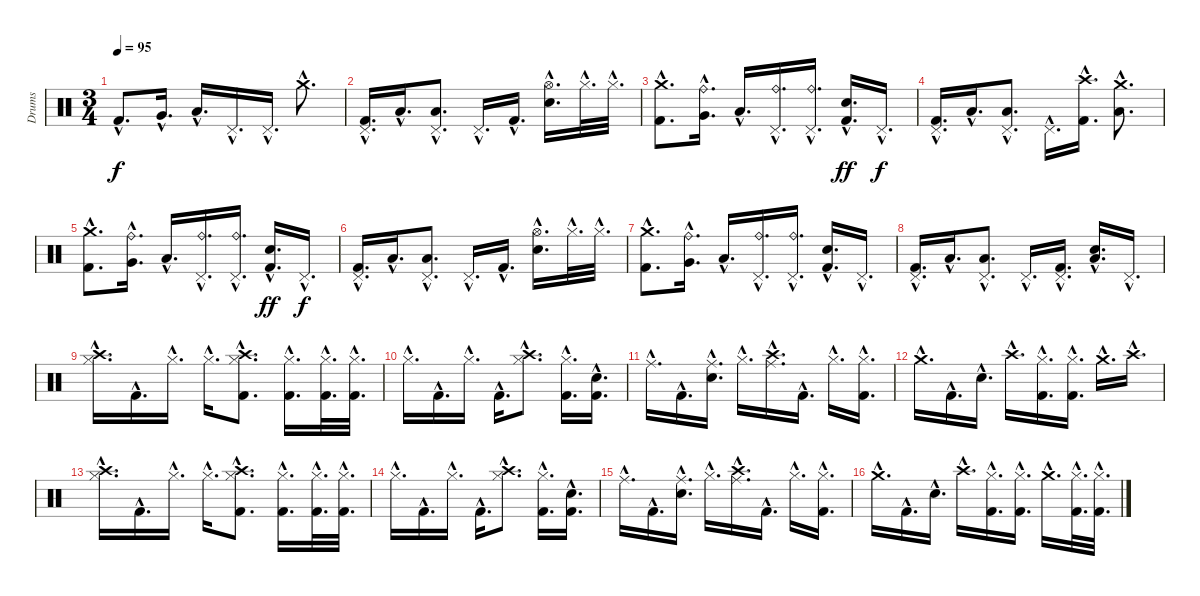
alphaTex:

\track ("Drums" "Drums") {instrument percussion}
\staff {score}
\articulation defaults
\ts (3 4)
\tempo 95
\clef neutral
\ks c "Kick (hit) 2"{hac}.8{d dy f} "Very Low Tom (hit)"{hac}.16{d} "Low Floor Tom (hit)"{hac}.16{d} "Pedal Hi-Hat (hit)"{hac}.16{d} "Pedal Hi-Hat (hit)"{hac}.16{d} "Crash medium (hit)"{hac}.8{d}
|
("Kick (hit) 2"{hac} "Pedal Hi-Hat (hit)"{hac}).16{d} "Low Floor Tom (hit)"{hac}.16{d} ("Low Floor Tom (hit)"{hac} "Pedal Hi-Hat (hit)"{hac}).8{d} "Pedal Hi-Hat (hit)"{hac}.16{d} "Kick (hit) 2"{hac}.16{d} ("Electric Snare (hit)"{hac} "Hi-Hat (open)"{hac}).16{d} "Hi-Hat (closed)"{hac}.32{d} "Hi-Hat (closed)"{hac}.32{d} |
("Kick (hit) 2"{hac} "Crash medium (hit)"{hac}).8{d} ("Very Low Tom (hit)"{hac} "Ride (bell)"{hac}).16{d} "Low Floor Tom (hit)"{hac}.16{d} ("Pedal Hi-Hat (hit)"{hac} "Ride (bell)"{hac}).16{d} ("Pedal Hi-Hat (hit)"{hac} "Ride (bell)"{hac}).16{d} ("Kick (hit) 2"{hac} "Electric Snare (hit)"{hac}).16{d dy ff} "Pedal Hi-Hat (hit)"{hac}.16{d dy f} |
("Kick (hit) 2"{hac} "Pedal Hi-Hat (hit)"{hac}).16{d} "Low Floor Tom (hit)"{hac}.16{d} ("Low Floor Tom (hit)"{hac} "Pedal Hi-Hat (hit)"{hac}).8{d} "Pedal Hi-Hat (hit)"{hac}.16{d} ("Kick (hit) 2"{hac} "Crash high (hit)"{hac}).16{d} ("Low Floor Tom (hit)"{hac} "Crash medium (hit)"{hac}).8{d} |
("Kick (hit) 2"{hac} "Crash medium (hit)"{hac}).8{d} ("Very Low Tom (hit)"{hac} "Ride (bell)"{hac}).16{d} "Low Floor Tom (hit)"{hac}.16{d} ("Pedal Hi-Hat (hit)"{hac} "Ride (bell)"{hac}).16{d} ("Pedal Hi-Hat (hit)"{hac} "Ride (bell)"{hac}).16{d} ("Kick (hit) 2"{hac} "Electric Snare (hit)"{hac}).16{d dy ff} "Pedal Hi-Hat (hit)"{hac}.16{d dy f} |
("Kick (hit) 2"{hac} "Pedal Hi-Hat (hit)"{hac}).16{d} "Low Floor Tom (hit)"{hac}.16{d} ("Low Floor Tom (hit)"{hac} "Pedal Hi-Hat (hit)"{hac}).8{d} "Pedal Hi-Hat (hit)"{hac}.16{d} "Kick (hit) 2"{hac}.16{d} ("Electric Snare (hit)"{hac} "Hi-Hat (open)"{hac}).16{d} "Hi-Hat (closed)"{hac}.32{d} "Hi-Hat (closed)"{hac}.32{d} |
("Kick (hit) 2"{hac} "Crash medium (hit)"{hac}).8{d} ("Very Low Tom (hit)"{hac} "Ride (bell)"{hac}).16{d} "Low Floor Tom (hit)"{hac}.16{d} ("Pedal Hi-Hat (hit)"{hac} "Ride (bell)"{hac}).16{d} ("Pedal Hi-Hat (hit)"{hac} "Ride (bell)"{hac}).16{d} ("Kick (hit) 2"{hac} "Electric Snare (hit)"{hac}).16{d} "Pedal Hi-Hat (hit)"{hac}.16{d} |
("Kick (hit) 2"{hac} "Pedal Hi-Hat (hit)"{hac}).16{d} "Low Floor Tom (hit)"{hac}.16{d} ("Low Floor Tom (hit)"{hac} "Pedal Hi-Hat (hit)"{hac}).8{d} "Pedal Hi-Hat (hit)"{hac}.16{d} ("Kick (hit) 2"{hac} "Pedal Hi-Hat (hit)"{hac}).16{d} ("Low Floor Tom (hit)"{hac} "Electric Snare (hit)"{hac}).16{d} "Pedal Hi-Hat (hit)"{hac}.16{d} |
("Hi-Hat (closed)"{hac} "Crash high (hit)"{hac}).16{d} "Kick (hit) 2"{hac}.16{d} "Hi-Hat (closed)"{hac}.16{d} "Hi-Hat (closed)"{hac}.16{d} ("Kick (hit) 2"{hac} "Hi-Hat (closed)"{hac} "Crash high (hit)"{hac}).8{d} ("Kick (hit) 2"{hac} "Hi-Hat (closed)"{hac}).16{d} ("Kick (hit) 2"{hac} "Hi-Hat (closed)"{hac}).32{d} ("Kick (hit) 2"{hac} "Hi-Hat (closed)"{hac}).32{d} |
"Hi-Hat (closed)"{hac}.16{d} "Kick (hit) 2"{hac}.16{d} "Hi-Hat (closed)"{hac}.16{d} "Kick (hit) 2"{hac}.16{d} ("Hi-Hat (closed)"{hac} "Crash high (hit)"{hac}).8{d} ("Kick (hit) 2"{hac} "Hi-Hat (closed)"{hac}).16{d} ("Kick (hit) 2"{hac} "Electric Snare (hit)"{hac}).16{d} |
"Ride (middle)"{hac}.16{d} "Kick (hit) 2"{hac}.16{d} ("Electric Snare (hit)"{hac} "Ride (middle)"{hac}).16{d} "Hi-Hat (closed)"{hac}.16{d} ("Crash high (hit)"{hac} "Ride (middle)"{hac}).16{d} "Kick (hit) 2"{hac}.16{d} "Hi-Hat (closed)"{hac}.16{d} ("Kick (hit) 2"{hac} "Hi-Hat (closed)"{hac}).16{d} |
"Crash medium (hit)"{hac}.16{d} "Kick (hit) 2"{hac}.16{d} "Electric Snare (hit)"{hac}.16{d} "Crash high (hit)"{hac}.16{d} ("Kick (hit) 2"{hac} "Hi-Hat (closed)"{hac}).16{d} ("Kick (hit) 2"{hac} "Hi-Hat (closed)"{hac}).16{d} "Crash medium (hit)"{hac}.16{d} "Crash high (hit)"{hac}.16{d} |
("Hi-Hat (closed)"{hac} "Crash high (hit)"{hac}).16{d} "Kick (hit) 2"{hac}.16{d} "Hi-Hat (closed)"{hac}.16{d} "Hi-Hat (closed)"{hac}.16{d} ("Kick (hit) 2"{hac} "Hi-Hat (closed)"{hac} "Crash high (hit)"{hac}).8{d} ("Kick (hit) 2"{hac} "Hi-Hat (closed)"{hac}).16{d} ("Kick (hit) 2"{hac} "Hi-Hat (closed)"{hac}).32{d} ("Kick (hit) 2"{hac} "Hi-Hat (closed)"{hac}).32{d} |
"Hi-Hat (closed)"{hac}.16{d} "Kick (hit) 2"{hac}.16{d} "Hi-Hat (closed)"{hac}.16{d} "Kick (hit) 2"{hac}.16{d} ("Hi-Hat (closed)"{hac} "Crash high (hit)"{hac}).8{d} ("Kick (hit) 2"{hac} "Hi-Hat (closed)"{hac}).16{d} ("Kick (hit) 2"{hac} "Electric Snare (hit)"{hac}).16{d} |
"Ride (middle)"{hac}.16{d} "Kick (hit) 2"{hac}.16{d} ("Electric Snare (hit)"{hac} "Ride (middle)"{hac}).16{d} "Hi-Hat (closed)"{hac}.16{d} ("Crash high (hit)"{hac} "Ride (middle)"{hac}).16{d} "Kick (hit) 2"{hac}.16{d} "Hi-Hat (closed)"{hac}.16{d} ("Kick (hit) 2"{hac} "Hi-Hat (closed)"{hac}).16{d} |
"Crash medium (hit)"{hac}.16{d} "Kick (hit) 2"{hac}.16{d} "Electric Snare (hit)"{hac}.16{d} "Crash high (hit)"{hac}.16{d} ("Kick (hit) 2"{hac} "Hi-Hat (closed)"{hac}).16{d} ("Kick (hit) 2"{hac} "Hi-Hat (closed)"{hac}).16{d} "Crash medium (hit)"{hac}.16{d} ("Kick (hit) 2"{hac} "Hi-Hat (closed)"{hac}).32{d} ("Kick (hit) 2"{hac} "Hi-Hat (closed)"{hac}).32{d}
